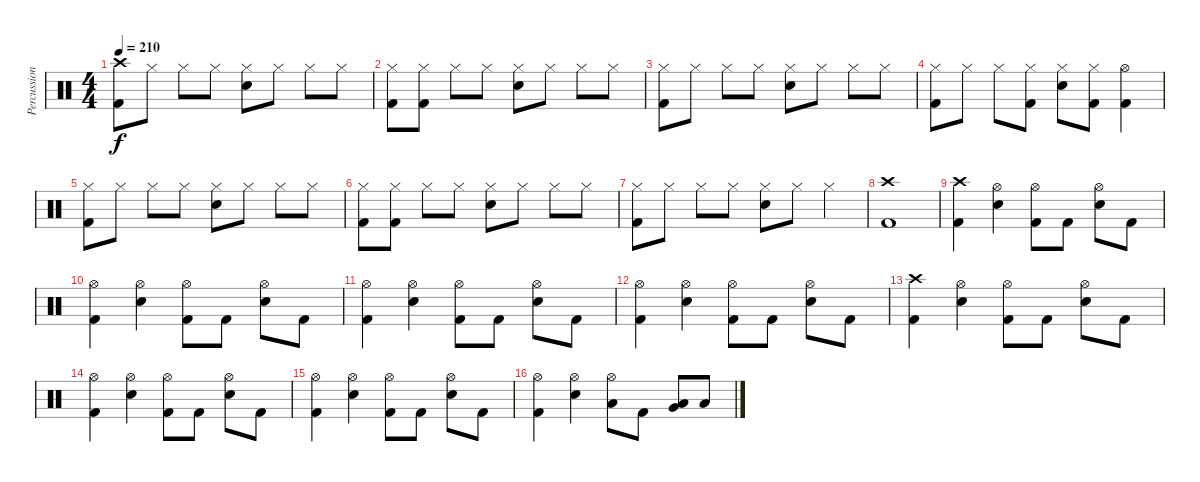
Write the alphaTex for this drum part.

\track ("Percussion" "Percussion") {instrument percussion}
\staff {score}
\articulation defaults
\ts (4 4)
\tempo 210
\clef neutral
\ks c
("Crash high (hit)" "Kick (hit) 2").8{dy f} "Hi-Hat (closed)".8 "Hi-Hat (closed)".8 "Hi-Hat (closed)".8 ("Hi-Hat (closed)" "Electric Snare (hit)").8 "Hi-Hat (closed)".8 "Hi-Hat (closed)".8 "Hi-Hat (closed)".8 |
("Hi-Hat (closed)" "Kick (hit) 2").8 ("Hi-Hat (closed)" "Kick (hit) 2").8 "Hi-Hat (closed)".8 "Hi-Hat (closed)".8 ("Hi-Hat (closed)" "Electric Snare (hit)").8 "Hi-Hat (closed)".8 "Hi-Hat (closed)".8 "Hi-Hat (closed)".8 |
("Hi-Hat (closed)" "Kick (hit) 2").8 "Hi-Hat (closed)".8 "Hi-Hat (closed)".8 "Hi-Hat (closed)".8 ("Hi-Hat (closed)" "Electric Snare (hit)").8 "Hi-Hat (closed)".8 "Hi-Hat (closed)".8 "Hi-Hat (closed)".8 |
("Hi-Hat (closed)" "Kick (hit) 2").8 "Hi-Hat (closed)".8 "Hi-Hat (closed)".8 ("Hi-Hat (closed)" "Kick (hit) 2").8 ("Hi-Hat (closed)" "Electric Snare (hit)").8 ("Hi-Hat (closed)" "Kick (hit) 2").8 ("Hi-Hat (open)" "Kick (hit) 2").4 |
("Hi-Hat (closed)" "Kick (hit) 2").8 "Hi-Hat (closed)".8 "Hi-Hat (closed)".8 "Hi-Hat (closed)".8 ("Hi-Hat (closed)" "Electric Snare (hit)").8 "Hi-Hat (closed)".8 "Hi-Hat (closed)".8 "Hi-Hat (closed)".8 |
("Hi-Hat (closed)" "Kick (hit) 2").8 ("Hi-Hat (closed)" "Kick (hit) 2").8 "Hi-Hat (closed)".8 "Hi-Hat (closed)".8 ("Hi-Hat (closed)" "Electric Snare (hit)").8 "Hi-Hat (closed)".8 "Hi-Hat (closed)".8 "Hi-Hat (closed)".8 |
("Hi-Hat (closed)" "Kick (hit) 2").8 "Hi-Hat (closed)".8 "Hi-Hat (closed)".8 "Hi-Hat (closed)".8 ("Hi-Hat (closed)" "Electric Snare (hit)").8 "Hi-Hat (closed)".8 "Hi-Hat (closed)".4 |
("Crash high (hit)" "Kick (hit) 2").1 |
("Crash high (hit)" "Kick (hit) 2").4 ("Hi-Hat (open)" "Electric Snare (hit)").4 ("Hi-Hat (open)" "Kick (hit) 2").8 "Kick (hit) 2".8 ("Hi-Hat (open)" "Electric Snare (hit)").8 "Kick (hit) 2".8 |
("Hi-Hat (open)" "Kick (hit) 2").4 ("Hi-Hat (open)" "Electric Snare (hit)").4 ("Hi-Hat (open)" "Kick (hit) 2").8 "Kick (hit) 2".8 ("Hi-Hat (open)" "Electric Snare (hit)").8 "Kick (hit) 2".8 |
("Hi-Hat (open)" "Kick (hit) 2").4 ("Hi-Hat (open)" "Electric Snare (hit)").4 ("Hi-Hat (open)" "Kick (hit) 2").8 "Kick (hit) 2".8 ("Hi-Hat (open)" "Electric Snare (hit)").8 "Kick (hit) 2".8 |
("Hi-Hat (open)" "Kick (hit) 2").4 ("Hi-Hat (open)" "Electric Snare (hit)").4 ("Hi-Hat (open)" "Kick (hit) 2").8 "Kick (hit) 2".8 ("Hi-Hat (open)" "Electric Snare (hit)").8 "Kick (hit) 2".8 |
("Crash high (hit)" "Kick (hit) 2").4 ("Hi-Hat (open)" "Electric Snare (hit)").4 ("Hi-Hat (open)" "Kick (hit) 2").8 "Kick (hit) 2".8 ("Hi-Hat (open)" "Electric Snare (hit)").8 "Kick (hit) 2".8 |
("Hi-Hat (open)" "Kick (hit) 2").4 ("Hi-Hat (open)" "Electric Snare (hit)").4 ("Hi-Hat (open)" "Kick (hit) 2").8 "Kick (hit) 2".8 ("Hi-Hat (open)" "Electric Snare (hit)").8 "Kick (hit) 2".8 |
("Hi-Hat (open)" "Kick (hit) 2").4 ("Hi-Hat (open)" "Electric Snare (hit)").4 ("Hi-Hat (open)" "Kick (hit) 2").8 "Kick (hit) 2".8 ("Hi-Hat (open)" "Electric Snare (hit)").8 "Kick (hit) 2".8 |
("Hi-Hat (open)" "Kick (hit) 2").4 ("Hi-Hat (open)" "Electric Snare (hit)").4 ("Low Floor Tom (hit)" "Hi-Hat (open)").8 "Kick (hit) 2".8 ("Low Tom (hit)" "Very Low Tom (hit)").8 "Low Floor Tom (hit)".8
